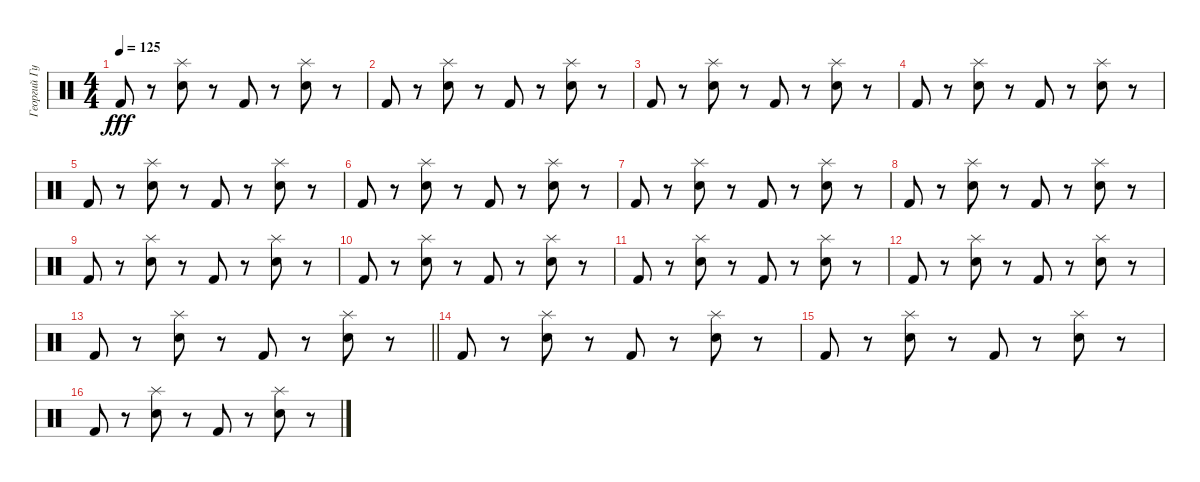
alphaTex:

\track ("Георгий Гурьянов" "Георгий Гу") {instrument percussion}
\staff {score}
\articulation defaults
\ts (4 4)
\tempo 125
\clef neutral
\ks c "Kick (hit) 2".8{dy fff}
r.8 ("Snare (hit) 2" "Splash (hit)").8 r.8 "Kick (hit) 2".8 r.8 ("Snare (hit) 2" "Splash (hit)").8 r.8 |
"Kick (hit) 2".8 r.8 ("Snare (hit) 2" "Splash (hit)").8 r.8 "Kick (hit) 2".8 r.8 ("Snare (hit) 2" "Splash (hit)").8 r.8 |
"Kick (hit) 2".8 r.8 ("Snare (hit) 2" "Splash (hit)").8 r.8 "Kick (hit) 2".8 r.8 ("Snare (hit) 2" "Splash (hit)").8 r.8 |
"Kick (hit) 2".8 r.8 ("Snare (hit) 2" "Splash (hit)").8 r.8 "Kick (hit) 2".8 r.8 ("Snare (hit) 2" "Splash (hit)").8 r.8 |
"Kick (hit) 2".8 r.8 ("Snare (hit) 2" "Splash (hit)").8 r.8 "Kick (hit) 2".8 r.8 ("Snare (hit) 2" "Splash (hit)").8 r.8 |
"Kick (hit) 2".8 r.8 ("Snare (hit) 2" "Splash (hit)").8 r.8 "Kick (hit) 2".8 r.8 ("Snare (hit) 2" "Splash (hit)").8 r.8 |
"Kick (hit) 2".8 r.8 ("Snare (hit) 2" "Splash (hit)").8 r.8 "Kick (hit) 2".8 r.8 ("Snare (hit) 2" "Splash (hit)").8 r.8 |
"Kick (hit) 2".8 r.8 ("Snare (hit) 2" "Splash (hit)").8 r.8 "Kick (hit) 2".8 r.8 ("Snare (hit) 2" "Splash (hit)").8 r.8 |
"Kick (hit) 2".8 r.8 ("Snare (hit) 2" "Splash (hit)").8 r.8 "Kick (hit) 2".8 r.8 ("Snare (hit) 2" "Splash (hit)").8 r.8 |
"Kick (hit) 2".8 r.8 ("Snare (hit) 2" "Splash (hit)").8 r.8 "Kick (hit) 2".8 r.8 ("Snare (hit) 2" "Splash (hit)").8 r.8 |
"Kick (hit) 2".8 r.8 ("Snare (hit) 2" "Splash (hit)").8 r.8 "Kick (hit) 2".8 r.8 ("Snare (hit) 2" "Splash (hit)").8 r.8 |
"Kick (hit) 2".8 r.8 ("Snare (hit) 2" "Splash (hit)").8 r.8 "Kick (hit) 2".8 r.8 ("Snare (hit) 2" "Splash (hit)").8 r.8 |
\barLineRight lightlight "Kick (hit) 2".8
r.8 ("Snare (hit) 2" "Splash (hit)").8 r.8 "Kick (hit) 2".8 r.8 ("Snare (hit) 2" "Splash (hit)").8 r.8 |
"Kick (hit) 2".8 r.8 ("Snare (hit) 2" "Splash (hit)").8 r.8 "Kick (hit) 2".8 r.8 ("Snare (hit) 2" "Splash (hit)").8 r.8 |
"Kick (hit) 2".8 r.8 ("Snare (hit) 2" "Splash (hit)").8 r.8 "Kick (hit) 2".8 r.8 ("Snare (hit) 2" "Splash (hit)").8 r.8 |
"Kick (hit) 2".8 r.8 ("Snare (hit) 2" "Splash (hit)").8 r.8 "Kick (hit) 2".8 r.8 ("Snare (hit) 2" "Splash (hit)").8 r.8
